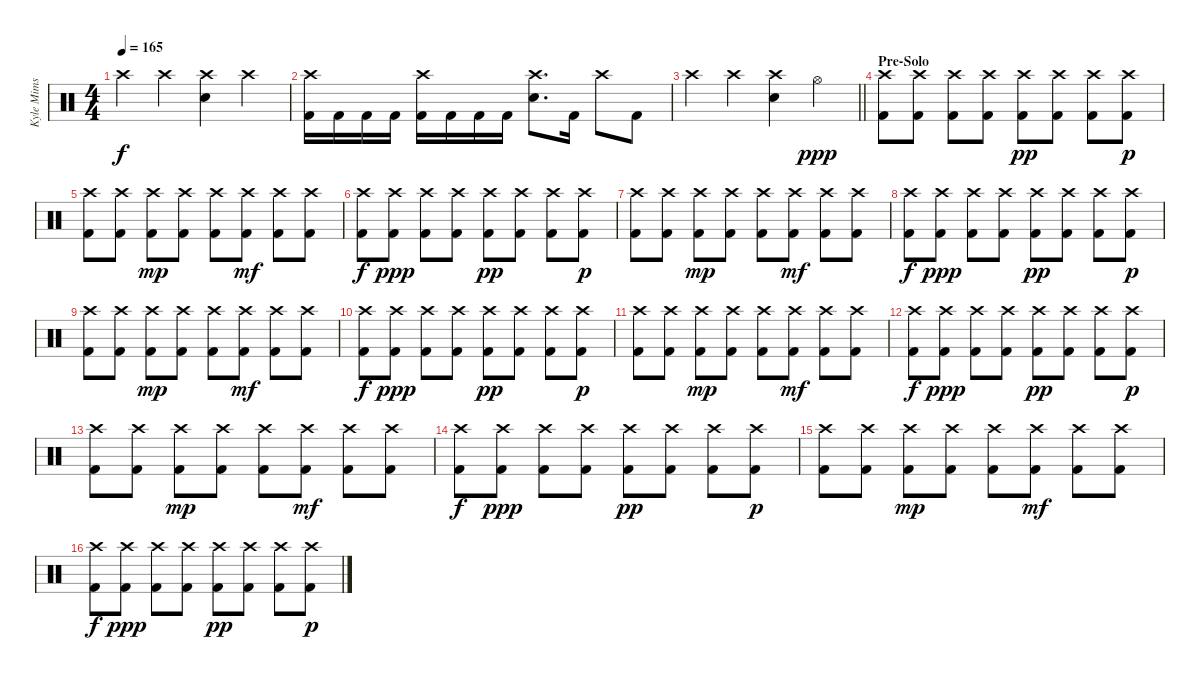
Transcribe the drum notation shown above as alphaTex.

\track ("Kyle Mims" "Kyle Mims") {instrument percussion}
\staff {score}
\articulation defaults
\ts (4 4)
\tempo 165
\clef neutral
\ks c "Crash high (hit)".4{dy f} "Crash high (hit)".4
("Crash high (hit)" "Electric Snare (hit)").4 "Crash high (hit)".4 |
("Crash high (hit)" "Kick (hit) 2").16 "Kick (hit) 2".16 "Kick (hit) 2".16 "Kick (hit) 2".16 ("Crash high (hit)" "Kick (hit) 2").16 "Kick (hit) 2".16 "Kick (hit) 2".16 "Kick (hit) 2".16 ("Crash high (hit)" "Electric Snare (hit)").8{d} "Kick (hit) 2".16 "Crash high (hit)".8 "Kick (hit) 2".8 |
\barLineRight lightlight "Crash high (hit)".4 "Crash high (hit)".4
("Crash high (hit)" "Electric Snare (hit)").4 "Hi-Hat (open)".4{dy ppp} |
\section ("" "Pre-Solo")
("Crash high (hit)" "Kick (hit) 2").8 ("Crash high (hit)" "Kick (hit) 2").8 ("Crash high (hit)" "Kick (hit) 2").8 ("Crash high (hit)" "Kick (hit) 2").8 ("Crash high (hit)" "Kick (hit) 2").8{dy pp} ("Crash high (hit)" "Kick (hit) 2").8 ("Crash high (hit)" "Kick (hit) 2").8 ("Crash high (hit)" "Kick (hit) 2").8{dy p} |
("Crash high (hit)" "Kick (hit) 2").8 ("Crash high (hit)" "Kick (hit) 2").8 ("Crash high (hit)" "Kick (hit) 2").8{dy mp} ("Crash high (hit)" "Kick (hit) 2").8 ("Crash high (hit)" "Kick (hit) 2").8 ("Crash high (hit)" "Kick (hit) 2").8{dy mf} ("Crash high (hit)" "Kick (hit) 2").8 ("Crash high (hit)" "Kick (hit) 2").8 |
("Crash high (hit)" "Kick (hit) 2").8{dy f} ("Crash high (hit)" "Kick (hit) 2").8{dy ppp} ("Crash high (hit)" "Kick (hit) 2").8 ("Crash high (hit)" "Kick (hit) 2").8 ("Crash high (hit)" "Kick (hit) 2").8{dy pp} ("Crash high (hit)" "Kick (hit) 2").8 ("Crash high (hit)" "Kick (hit) 2").8 ("Crash high (hit)" "Kick (hit) 2").8{dy p} |
("Crash high (hit)" "Kick (hit) 2").8 ("Crash high (hit)" "Kick (hit) 2").8 ("Crash high (hit)" "Kick (hit) 2").8{dy mp} ("Crash high (hit)" "Kick (hit) 2").8 ("Crash high (hit)" "Kick (hit) 2").8 ("Crash high (hit)" "Kick (hit) 2").8{dy mf} ("Crash high (hit)" "Kick (hit) 2").8 ("Crash high (hit)" "Kick (hit) 2").8 |
("Crash high (hit)" "Kick (hit) 2").8{dy f} ("Crash high (hit)" "Kick (hit) 2").8{dy ppp} ("Crash high (hit)" "Kick (hit) 2").8 ("Crash high (hit)" "Kick (hit) 2").8 ("Crash high (hit)" "Kick (hit) 2").8{dy pp} ("Crash high (hit)" "Kick (hit) 2").8 ("Crash high (hit)" "Kick (hit) 2").8 ("Crash high (hit)" "Kick (hit) 2").8{dy p} |
("Crash high (hit)" "Kick (hit) 2").8 ("Crash high (hit)" "Kick (hit) 2").8 ("Crash high (hit)" "Kick (hit) 2").8{dy mp} ("Crash high (hit)" "Kick (hit) 2").8 ("Crash high (hit)" "Kick (hit) 2").8 ("Crash high (hit)" "Kick (hit) 2").8{dy mf} ("Crash high (hit)" "Kick (hit) 2").8 ("Crash high (hit)" "Kick (hit) 2").8 |
("Crash high (hit)" "Kick (hit) 2").8{dy f} ("Crash high (hit)" "Kick (hit) 2").8{dy ppp} ("Crash high (hit)" "Kick (hit) 2").8 ("Crash high (hit)" "Kick (hit) 2").8 ("Crash high (hit)" "Kick (hit) 2").8{dy pp} ("Crash high (hit)" "Kick (hit) 2").8 ("Crash high (hit)" "Kick (hit) 2").8 ("Crash high (hit)" "Kick (hit) 2").8{dy p} |
("Crash high (hit)" "Kick (hit) 2").8 ("Crash high (hit)" "Kick (hit) 2").8 ("Crash high (hit)" "Kick (hit) 2").8{dy mp} ("Crash high (hit)" "Kick (hit) 2").8 ("Crash high (hit)" "Kick (hit) 2").8 ("Crash high (hit)" "Kick (hit) 2").8{dy mf} ("Crash high (hit)" "Kick (hit) 2").8 ("Crash high (hit)" "Kick (hit) 2").8 |
("Crash high (hit)" "Kick (hit) 2").8{dy f} ("Crash high (hit)" "Kick (hit) 2").8{dy ppp} ("Crash high (hit)" "Kick (hit) 2").8 ("Crash high (hit)" "Kick (hit) 2").8 ("Crash high (hit)" "Kick (hit) 2").8{dy pp} ("Crash high (hit)" "Kick (hit) 2").8 ("Crash high (hit)" "Kick (hit) 2").8 ("Crash high (hit)" "Kick (hit) 2").8{dy p} |
("Crash high (hit)" "Kick (hit) 2").8 ("Crash high (hit)" "Kick (hit) 2").8 ("Crash high (hit)" "Kick (hit) 2").8{dy mp} ("Crash high (hit)" "Kick (hit) 2").8 ("Crash high (hit)" "Kick (hit) 2").8 ("Crash high (hit)" "Kick (hit) 2").8{dy mf} ("Crash high (hit)" "Kick (hit) 2").8 ("Crash high (hit)" "Kick (hit) 2").8 |
("Crash high (hit)" "Kick (hit) 2").8{dy f} ("Crash high (hit)" "Kick (hit) 2").8{dy ppp} ("Crash high (hit)" "Kick (hit) 2").8 ("Crash high (hit)" "Kick (hit) 2").8 ("Crash high (hit)" "Kick (hit) 2").8{dy pp} ("Crash high (hit)" "Kick (hit) 2").8 ("Crash high (hit)" "Kick (hit) 2").8 ("Crash high (hit)" "Kick (hit) 2").8{dy p} |
("Crash high (hit)" "Kick (hit) 2").8 ("Crash high (hit)" "Kick (hit) 2").8 ("Crash high (hit)" "Kick (hit) 2").8{dy mp} ("Crash high (hit)" "Kick (hit) 2").8 ("Crash high (hit)" "Kick (hit) 2").8 ("Crash high (hit)" "Kick (hit) 2").8{dy mf} ("Crash high (hit)" "Kick (hit) 2").8 ("Crash high (hit)" "Kick (hit) 2").8 |
("Crash high (hit)" "Kick (hit) 2").8{dy f} ("Crash high (hit)" "Kick (hit) 2").8{dy ppp} ("Crash high (hit)" "Kick (hit) 2").8 ("Crash high (hit)" "Kick (hit) 2").8 ("Crash high (hit)" "Kick (hit) 2").8{dy pp} ("Crash high (hit)" "Kick (hit) 2").8 ("Crash high (hit)" "Kick (hit) 2").8 ("Crash high (hit)" "Kick (hit) 2").8{dy p}
